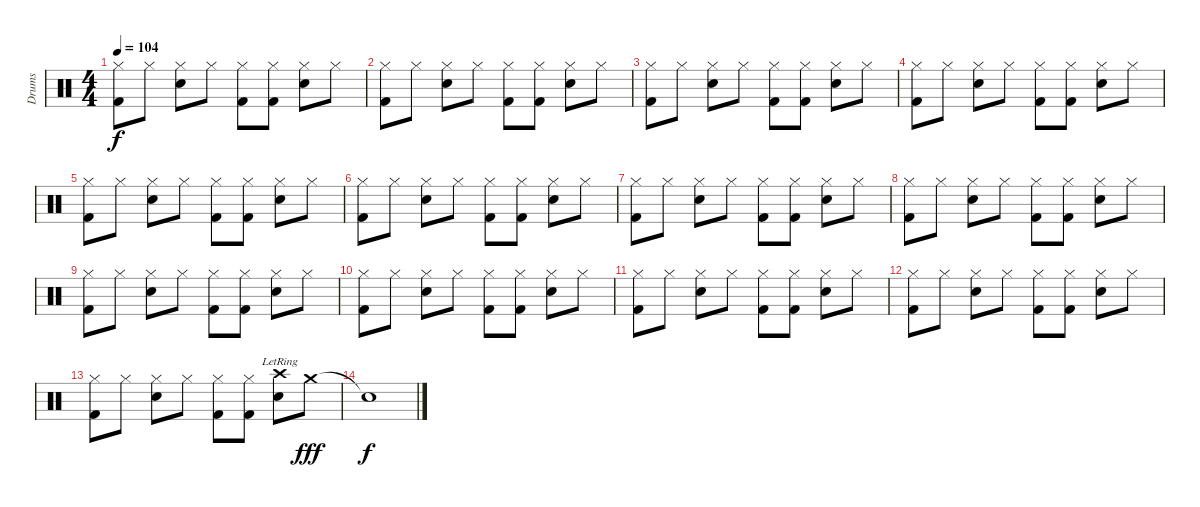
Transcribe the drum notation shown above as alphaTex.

\track ("Drums" "Drums") {instrument percussion}
\staff {score}
\articulation defaults
\ts (4 4)
\tempo 104
\clef neutral
\ks c
("Kick (hit) 2" "Hi-Hat (closed)").8{dy f} "Hi-Hat (closed)".8 ("Snare (hit) 2" "Hi-Hat (closed)").8 "Hi-Hat (closed)".8 ("Kick (hit) 2" "Hi-Hat (closed)").8 ("Kick (hit) 2" "Hi-Hat (closed)").8 ("Snare (hit) 2" "Hi-Hat (closed)").8 "Hi-Hat (closed)".8 |
("Kick (hit) 2" "Hi-Hat (closed)").8 "Hi-Hat (closed)".8 ("Snare (hit) 2" "Hi-Hat (closed)").8 "Hi-Hat (closed)".8 ("Kick (hit) 2" "Hi-Hat (closed)").8 ("Kick (hit) 2" "Hi-Hat (closed)").8 ("Snare (hit) 2" "Hi-Hat (closed)").8 "Hi-Hat (closed)".8 |
("Kick (hit) 2" "Hi-Hat (closed)").8 "Hi-Hat (closed)".8 ("Snare (hit) 2" "Hi-Hat (closed)").8 "Hi-Hat (closed)".8 ("Kick (hit) 2" "Hi-Hat (closed)").8 ("Kick (hit) 2" "Hi-Hat (closed)").8 ("Snare (hit) 2" "Hi-Hat (closed)").8 "Hi-Hat (closed)".8 |
("Kick (hit) 2" "Hi-Hat (closed)").8 "Hi-Hat (closed)".8 ("Snare (hit) 2" "Hi-Hat (closed)").8 "Hi-Hat (closed)".8 ("Kick (hit) 2" "Hi-Hat (closed)").8 ("Kick (hit) 2" "Hi-Hat (closed)").8 ("Snare (hit) 2" "Hi-Hat (closed)").8 "Hi-Hat (closed)".8 |
("Kick (hit) 2" "Hi-Hat (closed)").8 "Hi-Hat (closed)".8 ("Snare (hit) 2" "Hi-Hat (closed)").8 "Hi-Hat (closed)".8 ("Kick (hit) 2" "Hi-Hat (closed)").8 ("Kick (hit) 2" "Hi-Hat (closed)").8 ("Snare (hit) 2" "Hi-Hat (closed)").8 "Hi-Hat (closed)".8 |
("Kick (hit) 2" "Hi-Hat (closed)").8 "Hi-Hat (closed)".8 ("Snare (hit) 2" "Hi-Hat (closed)").8 "Hi-Hat (closed)".8 ("Kick (hit) 2" "Hi-Hat (closed)").8 ("Kick (hit) 2" "Hi-Hat (closed)").8 ("Snare (hit) 2" "Hi-Hat (closed)").8 "Hi-Hat (closed)".8 |
("Kick (hit) 2" "Hi-Hat (closed)").8 "Hi-Hat (closed)".8 ("Snare (hit) 2" "Hi-Hat (closed)").8 "Hi-Hat (closed)".8 ("Kick (hit) 2" "Hi-Hat (closed)").8 ("Kick (hit) 2" "Hi-Hat (closed)").8 ("Snare (hit) 2" "Hi-Hat (closed)").8 "Hi-Hat (closed)".8 |
("Kick (hit) 2" "Hi-Hat (closed)").8 "Hi-Hat (closed)".8 ("Snare (hit) 2" "Hi-Hat (closed)").8 "Hi-Hat (closed)".8 ("Kick (hit) 2" "Hi-Hat (closed)").8 ("Kick (hit) 2" "Hi-Hat (closed)").8 ("Snare (hit) 2" "Hi-Hat (closed)").8 "Hi-Hat (closed)".8 |
("Kick (hit) 2" "Hi-Hat (closed)").8 "Hi-Hat (closed)".8 ("Snare (hit) 2" "Hi-Hat (closed)").8 "Hi-Hat (closed)".8 ("Kick (hit) 2" "Hi-Hat (closed)").8 ("Kick (hit) 2" "Hi-Hat (closed)").8 ("Snare (hit) 2" "Hi-Hat (closed)").8 "Hi-Hat (closed)".8 |
("Kick (hit) 2" "Hi-Hat (closed)").8 "Hi-Hat (closed)".8 ("Snare (hit) 2" "Hi-Hat (closed)").8 "Hi-Hat (closed)".8 ("Kick (hit) 2" "Hi-Hat (closed)").8 ("Kick (hit) 2" "Hi-Hat (closed)").8 ("Snare (hit) 2" "Hi-Hat (closed)").8 "Hi-Hat (closed)".8 |
("Kick (hit) 2" "Hi-Hat (closed)").8 "Hi-Hat (closed)".8 ("Snare (hit) 2" "Hi-Hat (closed)").8 "Hi-Hat (closed)".8 ("Kick (hit) 2" "Hi-Hat (closed)").8 ("Kick (hit) 2" "Hi-Hat (closed)").8 ("Snare (hit) 2" "Hi-Hat (closed)").8 "Hi-Hat (closed)".8 |
("Kick (hit) 2" "Hi-Hat (closed)").8 "Hi-Hat (closed)".8 ("Snare (hit) 2" "Hi-Hat (closed)").8 "Hi-Hat (closed)".8 ("Kick (hit) 2" "Hi-Hat (closed)").8 ("Kick (hit) 2" "Hi-Hat (closed)").8 ("Snare (hit) 2" "Hi-Hat (closed)").8 "Hi-Hat (closed)".8 |
("Kick (hit) 2" "Hi-Hat (closed)").8 "Hi-Hat (closed)".8 ("Snare (hit) 2" "Hi-Hat (closed)").8 "Hi-Hat (closed)".8 ("Kick (hit) 2" "Hi-Hat (closed)").8 ("Kick (hit) 2" "Hi-Hat (closed)").8 ("Snare (hit) 2" "Crash high (hit)"{lr}).8 "Crash medium (hit)".8{dy fff} |
"Snare (hit)"{t}.1{dy f}
